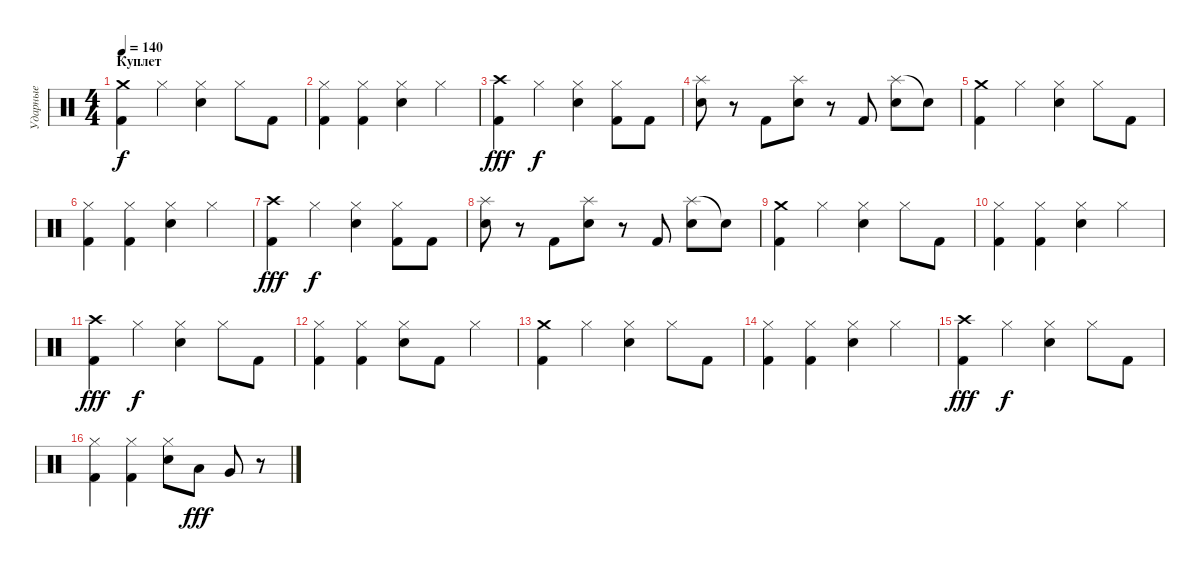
\track ("Ударные" "Ударные") {instrument percussion}
\staff {score}
\articulation defaults
\ts (4 4)
\section ("" "Куплет")
\tempo 140
\clef neutral
\ks c
("Crash medium (hit)" "Kick (hit) 2").4{dy f} "Hi-Hat (closed)".4 ("Hi-Hat (closed)" "Snare (hit) 2").4 "Hi-Hat (closed)".8 "Kick (hit) 2".8 |
("Kick (hit) 2" "Hi-Hat (closed)").4 ("Kick (hit) 2" "Hi-Hat (closed)").4 ("Snare (hit) 2" "Hi-Hat (closed)").4 "Hi-Hat (closed)".4 |
("Crash high (hit)" "Kick (hit) 2").4{dy fff} "Hi-Hat (closed)".4{dy f} ("Hi-Hat (closed)" "Snare (hit) 2").4 ("Kick (hit) 2" "Hi-Hat (closed)").8 "Kick (hit) 2".8 |
("Splash (hit)" "Snare (hit) 2").8 r.8 "Kick (hit) 2".8 ("Splash (hit)" "Snare (hit) 2").8 r.8 "Kick (hit) 2".8 ("Splash (hit)" "Snare (hit) 2").8 "Snare (hit)"{t}.8 |
("Crash medium (hit)" "Kick (hit) 2").4 "Hi-Hat (closed)".4 ("Hi-Hat (closed)" "Snare (hit) 2").4 "Hi-Hat (closed)".8 "Kick (hit) 2".8 |
("Kick (hit) 2" "Hi-Hat (closed)").4 ("Kick (hit) 2" "Hi-Hat (closed)").4 ("Snare (hit) 2" "Hi-Hat (closed)").4 "Hi-Hat (closed)".4 |
("Crash high (hit)" "Kick (hit) 2").4{dy fff} "Hi-Hat (closed)".4{dy f} ("Hi-Hat (closed)" "Snare (hit) 2").4 ("Kick (hit) 2" "Hi-Hat (closed)").8 "Kick (hit) 2".8 |
("Splash (hit)" "Snare (hit) 2").8 r.8 "Kick (hit) 2".8 ("Splash (hit)" "Snare (hit) 2").8 r.8 "Kick (hit) 2".8 ("Splash (hit)" "Snare (hit) 2").8 "Snare (hit)"{t}.8 |
("Crash medium (hit)" "Kick (hit) 2").4 "Hi-Hat (closed)".4 ("Hi-Hat (closed)" "Snare (hit) 2").4 "Hi-Hat (closed)".8 "Kick (hit) 2".8 |
("Kick (hit) 2" "Hi-Hat (closed)").4 ("Hi-Hat (closed)" "Kick (hit) 2").4 ("Snare (hit) 2" "Hi-Hat (closed)").4 "Hi-Hat (closed)".4 |
("Crash high (hit)" "Kick (hit) 2").4{dy fff} "Hi-Hat (closed)".4{dy f} ("Hi-Hat (closed)" "Snare (hit) 2").4 "Hi-Hat (closed)".8 "Kick (hit) 2".8 |
("Hi-Hat (closed)" "Kick (hit) 2").4 ("Hi-Hat (closed)" "Kick (hit) 2").4 ("Hi-Hat (closed)" "Snare (hit) 2").8 "Kick (hit) 2".8 "Hi-Hat (closed)".4 |
("Kick (hit) 2" "Crash medium (hit)").4 "Hi-Hat (closed)".4 ("Snare (hit) 2" "Hi-Hat (closed)").4 "Hi-Hat (closed)".8 "Kick (hit) 2".8 |
("Hi-Hat (closed)" "Kick (hit) 2").4 ("Kick (hit) 2" "Hi-Hat (closed)").4 ("Hi-Hat (closed)" "Snare (hit) 2").4 "Hi-Hat (closed)".4 |
("Crash high (hit)" "Kick (hit) 2").4{dy fff} "Hi-Hat (closed)".4{dy f} ("Snare (hit) 2" "Hi-Hat (closed)").4 "Hi-Hat (closed)".8 "Kick (hit) 2".8 |
("Kick (hit) 2" "Hi-Hat (closed)").4 ("Kick (hit) 2" "Hi-Hat (closed)").4 ("Hi-Hat (closed)" "Snare (hit) 2").8 "Low Tom (hit)".8{dy fff} "Very Low Tom (hit)".8 r.8
